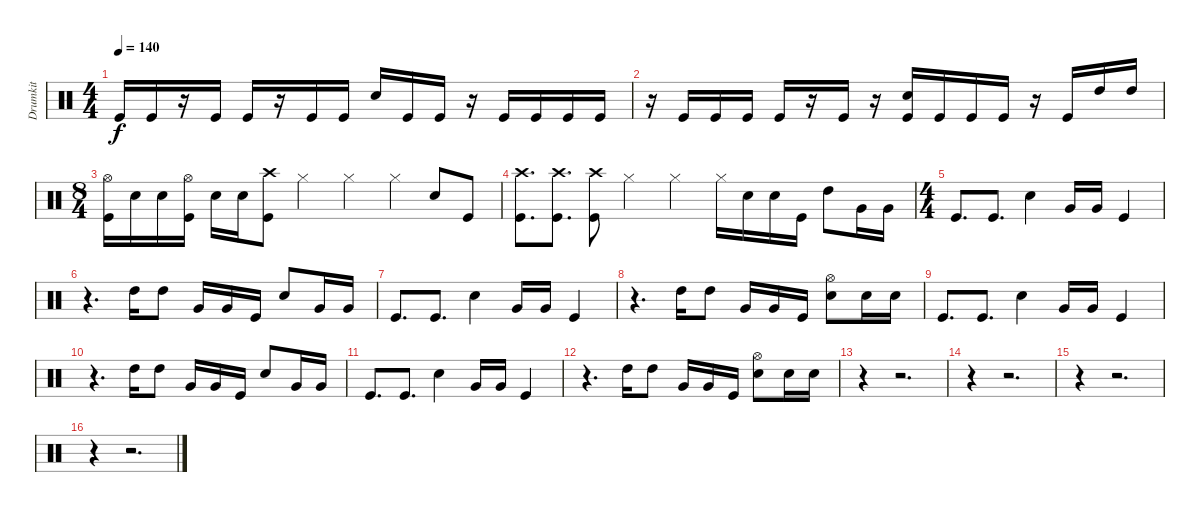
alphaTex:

\track ("Drumkit" "Drumkit") {instrument percussion}
\staff {score}
\articulation defaults
\ts (4 4)
\tempo 140
\clef neutral
\ks c "Kick (hit)".16{dy f} "Kick (hit)".16
r.16 "Kick (hit)".16 "Kick (hit)".16 r.16 "Kick (hit)".16 "Kick (hit)".16 "Snare (hit) 2".16 "Kick (hit)".16 "Kick (hit)".16 r.16 "Kick (hit)".16 "Kick (hit)".16 "Kick (hit)".16 "Kick (hit)".16 |
r.16 "Kick (hit)".16 "Kick (hit)".16 "Kick (hit)".16 "Kick (hit)".16 r.16 "Kick (hit)".16 r.16 ("Kick (hit)" "Snare (hit) 2").16 "Kick (hit)".16 "Kick (hit)".16 "Kick (hit)".16 r.16 "Kick (hit)".16 "High Tom (hit)".16 "High Tom (hit)".16 |
\ts (8 4)
("Hi-Hat (open)" "Kick (hit)").16 "Snare (hit) 2".16 "Snare (hit) 2".16 ("Hi-Hat (open)" "Kick (hit)").16 "Snare (hit) 2".16 "Snare (hit) 2".16 ("Crash high (hit)" "Kick (hit)").8 "Hi-Hat (closed)".2 "Hi-Hat (closed)".2 "Hi-Hat (closed)".4 "Snare (hit) 2".8 "Kick (hit)".8 |
("Crash high (hit)" "Kick (hit)").8{d} ("Crash high (hit)" "Kick (hit)").8{d} ("Crash high (hit)" "Kick (hit)").8 "Hi-Hat (closed)".2 "Hi-Hat (closed)".2 "Hi-Hat (closed)".16 "Snare (hit) 2".16 "Snare (hit) 2".16 "Kick (hit)".16 "High Tom (hit)".8 "Very Low Tom (hit)".16 "Very Low Tom (hit)".16 |
\ts (4 4)
"Kick (hit)".8{d} "Kick (hit)".8{d} "Snare (hit) 2".4 "Very Low Tom (hit)".16 "Very Low Tom (hit)".16 "Kick (hit)".4 |
r.4{d} "High Tom (hit)".16 "High Tom (hit)".8 "Very Low Tom (hit)".16 "Very Low Tom (hit)".16 "Kick (hit)".16 "Snare (hit) 2".8 "Very Low Tom (hit)".16 "Very Low Tom (hit)".16 |
"Kick (hit)".8{d} "Kick (hit)".8{d} "Snare (hit) 2".4 "Very Low Tom (hit)".16 "Very Low Tom (hit)".16 "Kick (hit)".4 |
r.4{d} "High Tom (hit)".16 "High Tom (hit)".8 "Very Low Tom (hit)".16 "Very Low Tom (hit)".16 "Kick (hit)".16 ("Snare (hit) 2" "Hi-Hat (open)").8 "Snare (hit) 2".16 "Snare (hit) 2".16 |
"Kick (hit)".8{d} "Kick (hit)".8{d} "Snare (hit) 2".4 "Very Low Tom (hit)".16 "Very Low Tom (hit)".16 "Kick (hit)".4 |
r.4{d} "High Tom (hit)".16 "High Tom (hit)".8 "Very Low Tom (hit)".16 "Very Low Tom (hit)".16 "Kick (hit)".16 "Snare (hit) 2".8 "Very Low Tom (hit)".16 "Very Low Tom (hit)".16 |
"Kick (hit)".8{d} "Kick (hit)".8{d} "Snare (hit) 2".4 "Very Low Tom (hit)".16 "Very Low Tom (hit)".16 "Kick (hit)".4 |
r.4{d} "High Tom (hit)".16 "High Tom (hit)".8 "Very Low Tom (hit)".16 "Very Low Tom (hit)".16 "Kick (hit)".16 ("Snare (hit) 2" "Hi-Hat (open)").8 "Snare (hit) 2".16 "Snare (hit) 2".16 |
r.4 r.2{d} |
r.4 r.2{d} |
r.4 r.2{d} |
r.4 r.2{d}
